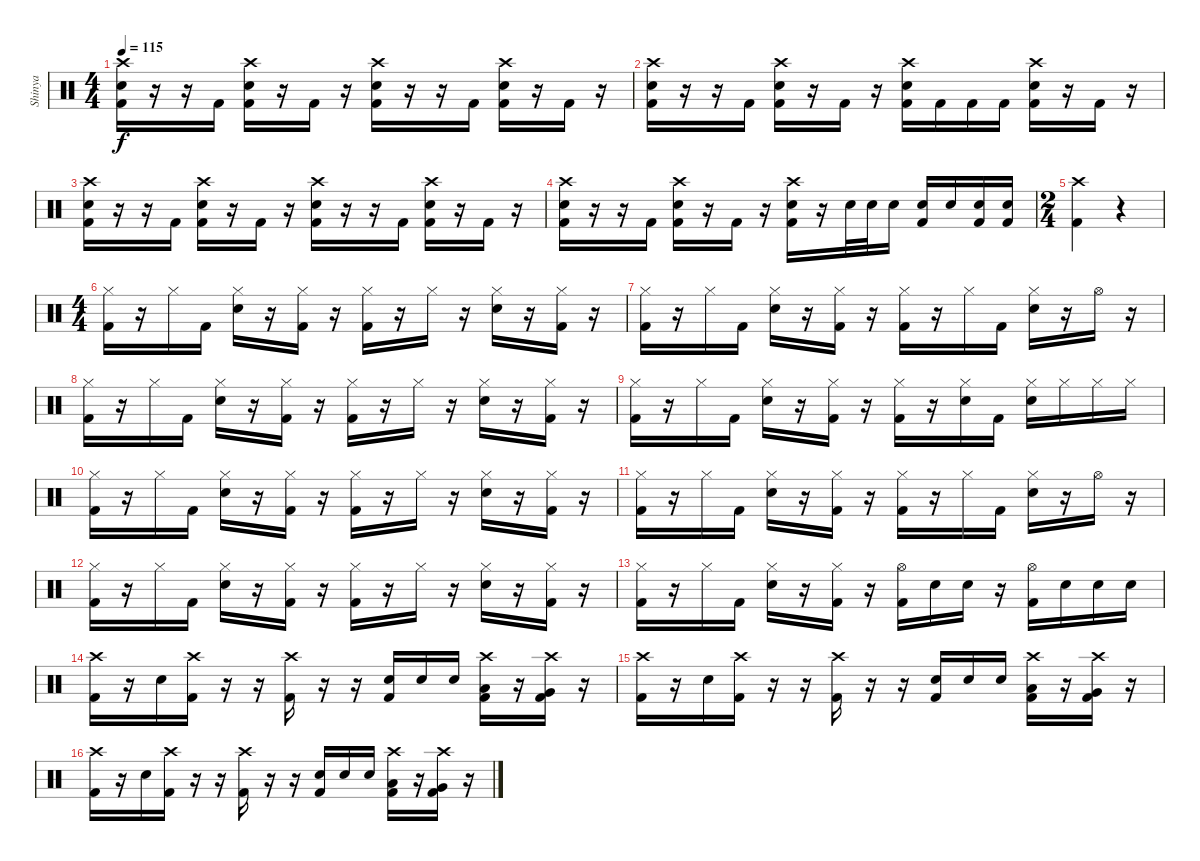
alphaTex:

\track ("Shinya" "Shinya") {instrument percussion}
\staff {score}
\articulation defaults
\ts (4 4)
\tempo 115
\clef neutral
\ks c
("Crash high (hit)" "Electric Snare (hit)" "Kick (hit) 2").16{dy f} r.16 r.16 "Kick (hit) 2".16 ("Crash high (hit)" "Electric Snare (hit)" "Kick (hit) 2").16 r.16 "Kick (hit) 2".16 r.16 ("Crash high (hit)" "Electric Snare (hit)" "Kick (hit) 2").16 r.16 r.16 "Kick (hit) 2".16 ("Crash high (hit)" "Electric Snare (hit)" "Kick (hit) 2").16 r.16 "Kick (hit) 2".16 r.16 |
("Crash high (hit)" "Electric Snare (hit)" "Kick (hit) 2").16 r.16 r.16 "Kick (hit) 2".16 ("Crash high (hit)" "Electric Snare (hit)" "Kick (hit) 2").16 r.16 "Kick (hit) 2".16 r.16 ("Crash high (hit)" "Electric Snare (hit)" "Kick (hit) 2").16 "Kick (hit) 2".16 "Kick (hit) 2".16 "Kick (hit) 2".16 ("Crash high (hit)" "Electric Snare (hit)" "Kick (hit) 2").16 r.16 "Kick (hit) 2".16 r.16 |
("Crash high (hit)" "Electric Snare (hit)" "Kick (hit) 2").16 r.16 r.16 "Kick (hit) 2".16 ("Crash high (hit)" "Electric Snare (hit)" "Kick (hit) 2").16 r.16 "Kick (hit) 2".16 r.16 ("Crash high (hit)" "Electric Snare (hit)" "Kick (hit) 2").16 r.16 r.16 "Kick (hit) 2".16 ("Crash high (hit)" "Electric Snare (hit)" "Kick (hit) 2").16 r.16 "Kick (hit) 2".16 r.16 |
("Crash high (hit)" "Electric Snare (hit)" "Kick (hit) 2").16 r.16 r.16 "Kick (hit) 2".16 ("Crash high (hit)" "Electric Snare (hit)" "Kick (hit) 2").16 r.16 "Kick (hit) 2".16 r.16 ("Crash high (hit)" "Electric Snare (hit)" "Kick (hit) 2").16 r.16 "Electric Snare (hit)".32 "Electric Snare (hit)".32 "Electric Snare (hit)".16 ("Electric Snare (hit)" "Kick (hit) 2").16 "Electric Snare (hit)".16 ("Electric Snare (hit)" "Kick (hit) 2").16 ("Electric Snare (hit)" "Kick (hit) 2").16 |
\ts (2 4)
("Crash high (hit)" "Kick (hit) 2").4 r.4 |
\ts (4 4)
("Hi-Hat (closed)" "Kick (hit) 2").16 r.16 "Hi-Hat (closed)".16 "Kick (hit) 2".16 ("Hi-Hat (closed)" "Electric Snare (hit)").16 r.16 ("Hi-Hat (closed)" "Kick (hit) 2").16 r.16 ("Hi-Hat (closed)" "Kick (hit) 2").16 r.16 "Hi-Hat (closed)".16 r.16 ("Hi-Hat (closed)" "Electric Snare (hit)").16 r.16 ("Hi-Hat (closed)" "Kick (hit) 2").16 r.16 |
("Hi-Hat (closed)" "Kick (hit) 2").16 r.16 "Hi-Hat (closed)".16 "Kick (hit) 2".16 ("Hi-Hat (closed)" "Electric Snare (hit)").16 r.16 ("Hi-Hat (closed)" "Kick (hit) 2").16 r.16 ("Hi-Hat (closed)" "Kick (hit) 2").16 r.16 "Hi-Hat (closed)".16 "Kick (hit) 2".16 ("Hi-Hat (closed)" "Electric Snare (hit)").16 r.16 "Hi-Hat (open)".16 r.16 |
("Hi-Hat (closed)" "Kick (hit) 2").16 r.16 "Hi-Hat (closed)".16 "Kick (hit) 2".16 ("Hi-Hat (closed)" "Electric Snare (hit)").16 r.16 ("Hi-Hat (closed)" "Kick (hit) 2").16 r.16 ("Hi-Hat (closed)" "Kick (hit) 2").16 r.16 "Hi-Hat (closed)".16 r.16 ("Hi-Hat (closed)" "Electric Snare (hit)").16 r.16 ("Hi-Hat (closed)" "Kick (hit) 2").16 r.16 |
("Hi-Hat (closed)" "Kick (hit) 2").16 r.16 "Hi-Hat (closed)".16 "Kick (hit) 2".16 ("Hi-Hat (closed)" "Electric Snare (hit)").16 r.16 ("Hi-Hat (closed)" "Kick (hit) 2").16 r.16 ("Hi-Hat (closed)" "Kick (hit) 2").16 r.16 ("Hi-Hat (closed)" "Electric Snare (hit)").16 "Kick (hit) 2".16 ("Hi-Hat (closed)" "Electric Snare (hit)").16 "Hi-Hat (closed)".16 "Hi-Hat (closed)".16 "Hi-Hat (closed)".16 |
("Hi-Hat (closed)" "Kick (hit) 2").16 r.16 "Hi-Hat (closed)".16 "Kick (hit) 2".16 ("Hi-Hat (closed)" "Electric Snare (hit)").16 r.16 ("Hi-Hat (closed)" "Kick (hit) 2").16 r.16 ("Hi-Hat (closed)" "Kick (hit) 2").16 r.16 "Hi-Hat (closed)".16 r.16 ("Hi-Hat (closed)" "Electric Snare (hit)").16 r.16 ("Hi-Hat (closed)" "Kick (hit) 2").16 r.16 |
("Hi-Hat (closed)" "Kick (hit) 2").16 r.16 "Hi-Hat (closed)".16 "Kick (hit) 2".16 ("Hi-Hat (closed)" "Electric Snare (hit)").16 r.16 ("Hi-Hat (closed)" "Kick (hit) 2").16 r.16 ("Hi-Hat (closed)" "Kick (hit) 2").16 r.16 "Hi-Hat (closed)".16 "Kick (hit) 2".16 ("Hi-Hat (closed)" "Electric Snare (hit)").16 r.16 "Hi-Hat (open)".16 r.16 |
("Hi-Hat (closed)" "Kick (hit) 2").16 r.16 "Hi-Hat (closed)".16 "Kick (hit) 2".16 ("Hi-Hat (closed)" "Electric Snare (hit)").16 r.16 ("Hi-Hat (closed)" "Kick (hit) 2").16 r.16 ("Hi-Hat (closed)" "Kick (hit) 2").16 r.16 "Hi-Hat (closed)".16 r.16 ("Hi-Hat (closed)" "Electric Snare (hit)").16 r.16 ("Hi-Hat (closed)" "Kick (hit) 2").16 r.16 |
("Hi-Hat (closed)" "Kick (hit) 2").16 r.16 "Hi-Hat (closed)".16 "Kick (hit) 2".16 ("Hi-Hat (closed)" "Electric Snare (hit)").16 r.16 ("Hi-Hat (closed)" "Kick (hit) 2").16 r.16 ("Hi-Hat (open)" "Kick (hit) 2").16 "Electric Snare (hit)".16 "Electric Snare (hit)".16 r.16 ("Hi-Hat (open)" "Kick (hit) 2").16 "Electric Snare (hit)".16 "Electric Snare (hit)".16 "Electric Snare (hit)".16 |
("Crash high (hit)" "Kick (hit) 2").16 r.16 "Electric Snare (hit)".16 ("Crash high (hit)" "Kick (hit) 2").16 r.16 r.16 ("Crash high (hit)" "Kick (hit) 2").16 r.16 r.16 ("Electric Snare (hit)" "Kick (hit) 2").16 "Electric Snare (hit)".16 "Electric Snare (hit)".16 ("Crash high (hit)" "Low Tom (hit)" "Kick (hit) 2").16 r.16 ("Crash high (hit)" "Very Low Tom (hit)" "Kick (hit) 2").16 r.16 |
("Crash high (hit)" "Kick (hit) 2").16 r.16 "Electric Snare (hit)".16 ("Crash high (hit)" "Kick (hit) 2").16 r.16 r.16 ("Crash high (hit)" "Kick (hit) 2").16 r.16 r.16 ("Electric Snare (hit)" "Kick (hit) 2").16 "Electric Snare (hit)".16 "Electric Snare (hit)".16 ("Crash high (hit)" "Low Tom (hit)" "Kick (hit) 2").16 r.16 ("Crash high (hit)" "Very Low Tom (hit)" "Kick (hit) 2").16 r.16 |
("Crash high (hit)" "Kick (hit) 2").16 r.16 "Electric Snare (hit)".16 ("Crash high (hit)" "Kick (hit) 2").16 r.16 r.16 ("Crash high (hit)" "Kick (hit) 2").16 r.16 r.16 ("Electric Snare (hit)" "Kick (hit) 2").16 "Electric Snare (hit)".16 "Electric Snare (hit)".16 ("Crash high (hit)" "Low Tom (hit)" "Kick (hit) 2").16 r.16 ("Crash high (hit)" "Very Low Tom (hit)" "Kick (hit) 2").16 r.16
